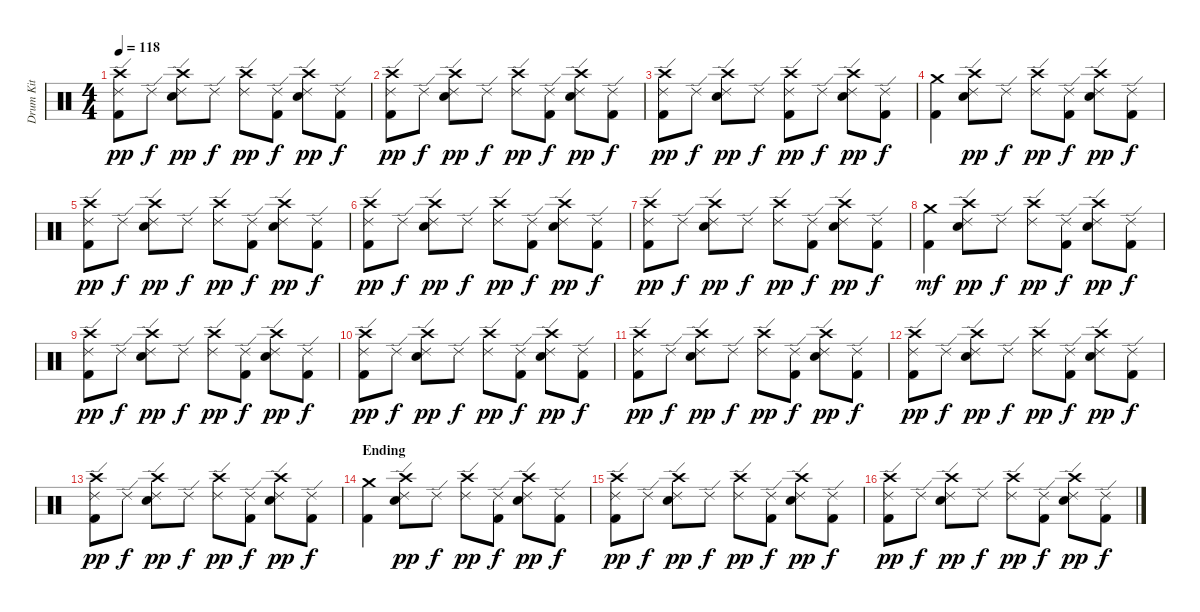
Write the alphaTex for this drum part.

\track ("Drum Kit" "Drum Kit") {instrument percussion}
\staff {score}
\articulation defaults
\ts (4 4)
\tempo 118
\clef neutral
\ks c
("Crash high (hit)" "Ride (edge) 2" "Kick (hit) 2").8{dy pp} "Ride (edge) 2".8{dy f} ("Crash high (hit)" "Ride (edge) 2" "Electric Snare (hit)").8{dy pp} "Ride (edge) 2".8{dy f} ("Crash high (hit)" "Ride (edge) 2").8{dy pp} ("Ride (edge) 2" "Kick (hit) 2").8{dy f} ("Crash high (hit)" "Ride (edge) 2" "Electric Snare (hit)").8{dy pp} ("Ride (edge) 2" "Kick (hit) 2").8{dy f} |
("Crash high (hit)" "Ride (edge) 2" "Kick (hit) 2").8{dy pp} "Ride (edge) 2".8{dy f} ("Crash high (hit)" "Ride (edge) 2" "Electric Snare (hit)").8{dy pp} "Ride (edge) 2".8{dy f} ("Crash high (hit)" "Ride (edge) 2").8{dy pp} ("Ride (edge) 2" "Kick (hit) 2").8{dy f} ("Crash high (hit)" "Ride (edge) 2" "Electric Snare (hit)").8{dy pp} ("Ride (edge) 2" "Kick (hit) 2").8{dy f} |
("Crash high (hit)" "Ride (edge) 2" "Kick (hit) 2").8{dy pp} "Ride (edge) 2".8{dy f} ("Crash high (hit)" "Ride (edge) 2" "Electric Snare (hit)").8{dy pp} "Ride (edge) 2".8{dy f} ("Crash high (hit)" "Ride (edge) 2" "Kick (hit) 2").8{dy pp} "Ride (edge) 2".8{dy f} ("Crash high (hit)" "Ride (edge) 2" "Electric Snare (hit)").8{dy pp} ("Ride (edge) 2" "Kick (hit) 2").8{dy f} |
("Crash medium (hit)" "Kick (hit) 2").4 ("Crash high (hit)" "Ride (edge) 2" "Electric Snare (hit)").8{dy pp} "Ride (edge) 2".8{dy f} ("Crash high (hit)" "Ride (edge) 2").8{dy pp} ("Ride (edge) 2" "Kick (hit) 2").8{dy f} ("Crash high (hit)" "Ride (edge) 2" "Electric Snare (hit)").8{dy pp} ("Ride (edge) 2" "Kick (hit) 2").8{dy f} |
("Crash high (hit)" "Ride (edge) 2" "Kick (hit) 2").8{dy pp} "Ride (edge) 2".8{dy f} ("Crash high (hit)" "Ride (edge) 2" "Electric Snare (hit)").8{dy pp} "Ride (edge) 2".8{dy f} ("Crash high (hit)" "Ride (edge) 2").8{dy pp} ("Ride (edge) 2" "Kick (hit) 2").8{dy f} ("Crash high (hit)" "Ride (edge) 2" "Electric Snare (hit)").8{dy pp} ("Ride (edge) 2" "Kick (hit) 2").8{dy f} |
("Crash high (hit)" "Ride (edge) 2" "Kick (hit) 2").8{dy pp} "Ride (edge) 2".8{dy f} ("Crash high (hit)" "Ride (edge) 2" "Electric Snare (hit)").8{dy pp} "Ride (edge) 2".8{dy f} ("Crash high (hit)" "Ride (edge) 2").8{dy pp} ("Ride (edge) 2" "Kick (hit) 2").8{dy f} ("Crash high (hit)" "Ride (edge) 2" "Electric Snare (hit)").8{dy pp} ("Ride (edge) 2" "Kick (hit) 2").8{dy f} |
("Crash high (hit)" "Ride (edge) 2" "Kick (hit) 2").8{dy pp} "Ride (edge) 2".8{dy f} ("Crash high (hit)" "Ride (edge) 2" "Electric Snare (hit)").8{dy pp} "Ride (edge) 2".8{dy f} ("Crash high (hit)" "Ride (edge) 2").8{dy pp} ("Ride (edge) 2" "Kick (hit) 2").8{dy f} ("Crash high (hit)" "Ride (edge) 2" "Electric Snare (hit)").8{dy pp} ("Ride (edge) 2" "Kick (hit) 2").8{dy f} |
("Crash medium (hit)" "Kick (hit) 2").4{dy mf} ("Crash high (hit)" "Ride (edge) 2" "Electric Snare (hit)").8{dy pp} "Ride (edge) 2".8{dy f} ("Crash high (hit)" "Ride (edge) 2").8{dy pp} ("Ride (edge) 2" "Kick (hit) 2").8{dy f} ("Crash high (hit)" "Ride (edge) 2" "Electric Snare (hit)").8{dy pp} ("Ride (edge) 2" "Kick (hit) 2").8{dy f} |
("Crash high (hit)" "Ride (edge) 2" "Kick (hit) 2").8{dy pp} "Ride (edge) 2".8{dy f} ("Crash high (hit)" "Ride (edge) 2" "Electric Snare (hit)").8{dy pp} "Ride (edge) 2".8{dy f} ("Crash high (hit)" "Ride (edge) 2").8{dy pp} ("Ride (edge) 2" "Kick (hit) 2").8{dy f} ("Crash high (hit)" "Ride (edge) 2" "Electric Snare (hit)").8{dy pp} ("Ride (edge) 2" "Kick (hit) 2").8{dy f} |
("Crash high (hit)" "Ride (edge) 2" "Kick (hit) 2").8{dy pp} "Ride (edge) 2".8{dy f} ("Crash high (hit)" "Ride (edge) 2" "Electric Snare (hit)").8{dy pp} "Ride (edge) 2".8{dy f} ("Crash high (hit)" "Ride (edge) 2").8{dy pp} ("Ride (edge) 2" "Kick (hit) 2").8{dy f} ("Crash high (hit)" "Ride (edge) 2" "Electric Snare (hit)").8{dy pp} ("Ride (edge) 2" "Kick (hit) 2").8{dy f} |
("Crash high (hit)" "Ride (edge) 2" "Kick (hit) 2").8{dy pp} "Ride (edge) 2".8{dy f} ("Crash high (hit)" "Ride (edge) 2" "Electric Snare (hit)").8{dy pp} "Ride (edge) 2".8{dy f} ("Crash high (hit)" "Ride (edge) 2").8{dy pp} ("Ride (edge) 2" "Kick (hit) 2").8{dy f} ("Crash high (hit)" "Ride (edge) 2" "Electric Snare (hit)").8{dy pp} ("Ride (edge) 2" "Kick (hit) 2").8{dy f} |
("Crash high (hit)" "Ride (edge) 2" "Kick (hit) 2").8{dy pp} "Ride (edge) 2".8{dy f} ("Crash high (hit)" "Ride (edge) 2" "Electric Snare (hit)").8{dy pp} "Ride (edge) 2".8{dy f} ("Crash high (hit)" "Ride (edge) 2").8{dy pp} ("Ride (edge) 2" "Kick (hit) 2").8{dy f} ("Crash high (hit)" "Ride (edge) 2" "Electric Snare (hit)").8{dy pp} ("Ride (edge) 2" "Kick (hit) 2").8{dy f} |
("Crash high (hit)" "Ride (edge) 2" "Kick (hit) 2").8{dy pp} "Ride (edge) 2".8{dy f} ("Crash high (hit)" "Ride (edge) 2" "Electric Snare (hit)").8{dy pp} "Ride (edge) 2".8{dy f} ("Crash high (hit)" "Ride (edge) 2").8{dy pp} ("Ride (edge) 2" "Kick (hit) 2").8{dy f} ("Crash high (hit)" "Ride (edge) 2" "Electric Snare (hit)").8{dy pp} ("Ride (edge) 2" "Kick (hit) 2").8{dy f} |
\section ("" "Ending")
("Crash medium (hit)" "Kick (hit) 2").4 ("Crash high (hit)" "Ride (edge) 2" "Electric Snare (hit)").8{dy pp} "Ride (edge) 2".8{dy f} ("Crash high (hit)" "Ride (edge) 2").8{dy pp} ("Ride (edge) 2" "Kick (hit) 2").8{dy f} ("Crash high (hit)" "Ride (edge) 2" "Electric Snare (hit)").8{dy pp} ("Ride (edge) 2" "Kick (hit) 2").8{dy f} |
("Crash high (hit)" "Ride (edge) 2" "Kick (hit) 2").8{dy pp} "Ride (edge) 2".8{dy f} ("Crash high (hit)" "Ride (edge) 2" "Electric Snare (hit)").8{dy pp} "Ride (edge) 2".8{dy f} ("Crash high (hit)" "Ride (edge) 2").8{dy pp} ("Ride (edge) 2" "Kick (hit) 2").8{dy f} ("Crash high (hit)" "Ride (edge) 2" "Electric Snare (hit)").8{dy pp} ("Ride (edge) 2" "Kick (hit) 2").8{dy f} |
("Crash high (hit)" "Ride (edge) 2" "Kick (hit) 2").8{dy pp} "Ride (edge) 2".8{dy f} ("Crash high (hit)" "Ride (edge) 2" "Electric Snare (hit)").8{dy pp} "Ride (edge) 2".8{dy f} ("Crash high (hit)" "Ride (edge) 2").8{dy pp} ("Ride (edge) 2" "Kick (hit) 2").8{dy f} ("Crash high (hit)" "Ride (edge) 2" "Electric Snare (hit)").8{dy pp} ("Ride (edge) 2" "Kick (hit) 2").8{dy f}
